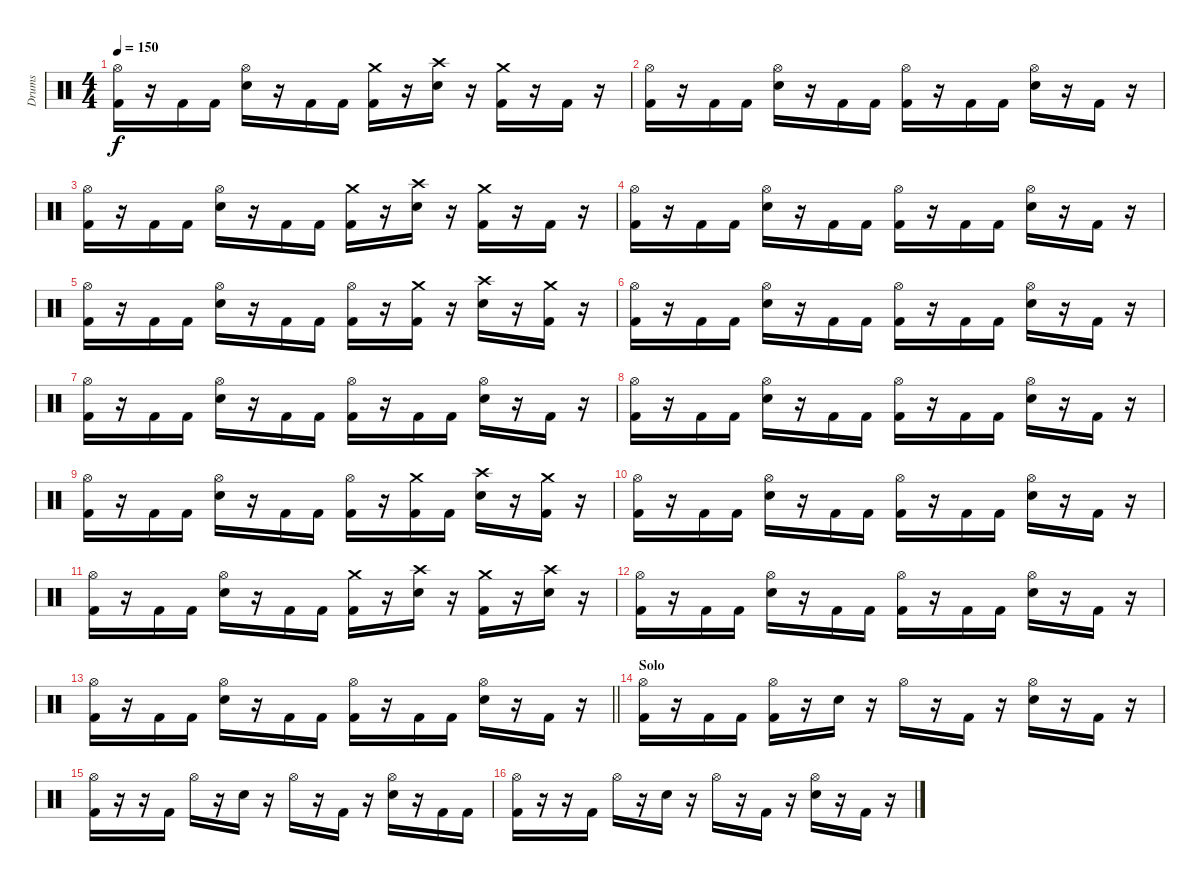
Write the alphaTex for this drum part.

\track ("Drums" "Drums") {instrument percussion}
\staff {score}
\articulation defaults
\ts (4 4)
\tempo 150
\clef neutral
\ks c
("Hi-Hat (open)" "Kick (hit) 2").16{dy f} r.16 "Kick (hit) 2".16 "Kick (hit) 2".16 ("Hi-Hat (open)" "Snare (hit) 2").16 r.16 "Kick (hit) 2".16 "Kick (hit) 2".16 ("Crash medium (hit)" "Kick (hit) 2").16 r.16 ("Crash high (hit)" "Snare (hit) 2").16 r.16 ("Crash medium (hit)" "Kick (hit) 2").16 r.16 "Kick (hit) 2".16 r.16 |
("Hi-Hat (open)" "Kick (hit) 2").16 r.16 "Kick (hit) 2".16 "Kick (hit) 2".16 ("Hi-Hat (open)" "Snare (hit) 2").16 r.16 "Kick (hit) 2".16 "Kick (hit) 2".16 ("Hi-Hat (open)" "Kick (hit) 2").16 r.16 "Kick (hit) 2".16 "Kick (hit) 2".16 ("Hi-Hat (open)" "Snare (hit) 2").16 r.16 "Kick (hit) 2".16 r.16 |
("Hi-Hat (open)" "Kick (hit) 2").16 r.16 "Kick (hit) 2".16 "Kick (hit) 2".16 ("Hi-Hat (open)" "Snare (hit) 2").16 r.16 "Kick (hit) 2".16 "Kick (hit) 2".16 ("Crash medium (hit)" "Kick (hit) 2").16 r.16 ("Crash high (hit)" "Snare (hit) 2").16 r.16 ("Crash medium (hit)" "Kick (hit) 2").16 r.16 "Kick (hit) 2".16 r.16 |
("Hi-Hat (open)" "Kick (hit) 2").16 r.16 "Kick (hit) 2".16 "Kick (hit) 2".16 ("Hi-Hat (open)" "Snare (hit) 2").16 r.16 "Kick (hit) 2".16 "Kick (hit) 2".16 ("Hi-Hat (open)" "Kick (hit) 2").16 r.16 "Kick (hit) 2".16 "Kick (hit) 2".16 ("Hi-Hat (open)" "Snare (hit) 2").16 r.16 "Kick (hit) 2".16 r.16 |
("Hi-Hat (open)" "Kick (hit) 2").16 r.16 "Kick (hit) 2".16 "Kick (hit) 2".16 ("Hi-Hat (open)" "Snare (hit) 2").16 r.16 "Kick (hit) 2".16 "Kick (hit) 2".16 ("Hi-Hat (open)" "Kick (hit) 2").16 r.16 ("Crash medium (hit)" "Kick (hit) 2").16 r.16 ("Crash high (hit)" "Snare (hit) 2").16 r.16 ("Crash medium (hit)" "Kick (hit) 2").16 r.16 |
("Hi-Hat (open)" "Kick (hit) 2").16 r.16 "Kick (hit) 2".16 "Kick (hit) 2".16 ("Hi-Hat (open)" "Snare (hit) 2").16 r.16 "Kick (hit) 2".16 "Kick (hit) 2".16 ("Hi-Hat (open)" "Kick (hit) 2").16 r.16 "Kick (hit) 2".16 "Kick (hit) 2".16 ("Hi-Hat (open)" "Snare (hit) 2").16 r.16 "Kick (hit) 2".16 r.16 |
("Hi-Hat (open)" "Kick (hit) 2").16 r.16 "Kick (hit) 2".16 "Kick (hit) 2".16 ("Hi-Hat (open)" "Snare (hit) 2").16 r.16 "Kick (hit) 2".16 "Kick (hit) 2".16 ("Hi-Hat (open)" "Kick (hit) 2").16 r.16 "Kick (hit) 2".16 "Kick (hit) 2".16 ("Hi-Hat (open)" "Snare (hit) 2").16 r.16 "Kick (hit) 2".16 r.16 |
("Hi-Hat (open)" "Kick (hit) 2").16 r.16 "Kick (hit) 2".16 "Kick (hit) 2".16 ("Hi-Hat (open)" "Snare (hit) 2").16 r.16 "Kick (hit) 2".16 "Kick (hit) 2".16 ("Hi-Hat (open)" "Kick (hit) 2").16 r.16 "Kick (hit) 2".16 "Kick (hit) 2".16 ("Hi-Hat (open)" "Snare (hit) 2").16 r.16 "Kick (hit) 2".16 r.16 |
("Hi-Hat (open)" "Kick (hit) 2").16 r.16 "Kick (hit) 2".16 "Kick (hit) 2".16 ("Hi-Hat (open)" "Snare (hit) 2").16 r.16 "Kick (hit) 2".16 "Kick (hit) 2".16 ("Hi-Hat (open)" "Kick (hit) 2").16 r.16 ("Crash medium (hit)" "Kick (hit) 2").16 "Kick (hit) 2".16 ("Crash high (hit)" "Snare (hit) 2").16 r.16 ("Crash medium (hit)" "Kick (hit) 2").16 r.16 |
("Hi-Hat (open)" "Kick (hit) 2").16 r.16 "Kick (hit) 2".16 "Kick (hit) 2".16 ("Hi-Hat (open)" "Snare (hit) 2").16 r.16 "Kick (hit) 2".16 "Kick (hit) 2".16 ("Hi-Hat (open)" "Kick (hit) 2").16 r.16 "Kick (hit) 2".16 "Kick (hit) 2".16 ("Hi-Hat (open)" "Snare (hit) 2").16 r.16 "Kick (hit) 2".16 r.16 |
("Hi-Hat (open)" "Kick (hit) 2").16 r.16 "Kick (hit) 2".16 "Kick (hit) 2".16 ("Hi-Hat (open)" "Snare (hit) 2").16 r.16 "Kick (hit) 2".16 "Kick (hit) 2".16 ("Crash medium (hit)" "Kick (hit) 2").16 r.16 ("Crash high (hit)" "Snare (hit) 2").16 r.16 ("Crash medium (hit)" "Kick (hit) 2").16 r.16 ("Crash high (hit)" "Snare (hit) 2").16 r.16 |
("Hi-Hat (open)" "Kick (hit) 2").16 r.16 "Kick (hit) 2".16 "Kick (hit) 2".16 ("Hi-Hat (open)" "Snare (hit) 2").16 r.16 "Kick (hit) 2".16 "Kick (hit) 2".16 ("Hi-Hat (open)" "Kick (hit) 2").16 r.16 "Kick (hit) 2".16 "Kick (hit) 2".16 ("Hi-Hat (open)" "Snare (hit) 2").16 r.16 "Kick (hit) 2".16 r.16 |
\barLineRight lightlight
("Hi-Hat (open)" "Kick (hit) 2").16 r.16 "Kick (hit) 2".16 "Kick (hit) 2".16 ("Hi-Hat (open)" "Snare (hit) 2").16 r.16 "Kick (hit) 2".16 "Kick (hit) 2".16 ("Hi-Hat (open)" "Kick (hit) 2").16 r.16 "Kick (hit) 2".16 "Kick (hit) 2".16 ("Hi-Hat (open)" "Snare (hit) 2").16 r.16 "Kick (hit) 2".16 r.16 |
\section ("" "Solo")
("Hi-Hat (open)" "Kick (hit) 2").16 r.16 "Kick (hit) 2".16 "Kick (hit) 2".16 ("Hi-Hat (open)" "Kick (hit) 2").16 r.16 "Snare (hit) 2".16 r.16 "Hi-Hat (open)".16 r.16 "Kick (hit) 2".16 r.16 ("Hi-Hat (open)" "Snare (hit) 2").16 r.16 "Kick (hit) 2".16 r.16 |
("Hi-Hat (open)" "Kick (hit) 2").16 r.16 r.16 "Kick (hit) 2".16 "Hi-Hat (open)".16 r.16 "Snare (hit) 2".16 r.16 "Hi-Hat (open)".16 r.16 "Kick (hit) 2".16 r.16 ("Hi-Hat (open)" "Snare (hit) 2").16 r.16 "Kick (hit) 2".16 "Kick (hit) 2".16 |
("Hi-Hat (open)" "Kick (hit) 2").16 r.16 r.16 "Kick (hit) 2".16 "Hi-Hat (open)".16 r.16 "Snare (hit) 2".16 r.16 "Hi-Hat (open)".16 r.16 "Kick (hit) 2".16 r.16 ("Hi-Hat (open)" "Snare (hit) 2").16 r.16 "Kick (hit) 2".16 r.16
